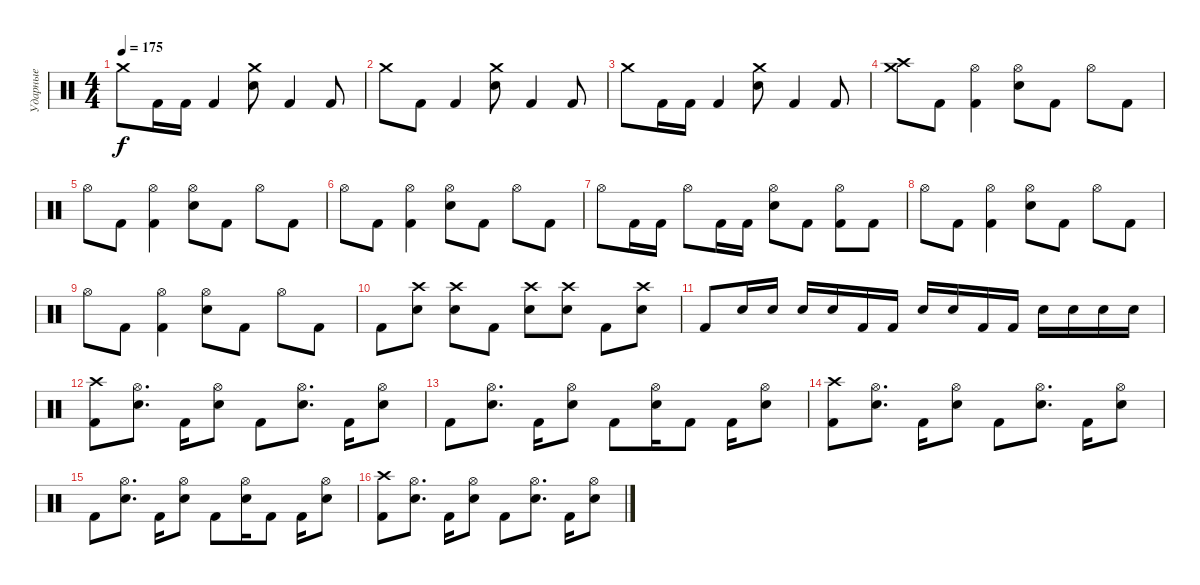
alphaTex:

\track ("Ударные" "Ударные") {instrument percussion}
\staff {score}
\articulation defaults
\ts (4 4)
\tempo 175
\clef neutral
\ks c "Crash medium (hit)".8{dy f} "Kick (hit) 2".16 "Kick (hit) 2".16 "Kick (hit) 2".4
("Crash medium (hit)" "Electric Snare (hit)").8 "Kick (hit) 2".4 "Kick (hit) 2".8 |
"Crash medium (hit)".8 "Kick (hit) 2".8 "Kick (hit) 2".4 ("Crash medium (hit)" "Electric Snare (hit)").8 "Kick (hit) 2".4 "Kick (hit) 2".8 |
"Crash medium (hit)".8 "Kick (hit) 2".16 "Kick (hit) 2".16 "Kick (hit) 2".4 ("Crash medium (hit)" "Electric Snare (hit)").8 "Kick (hit) 2".4 "Kick (hit) 2".8 |
("Crash high (hit)" "Crash medium (hit)").8 "Kick (hit) 2".8 ("Hi-Hat (open)" "Kick (hit) 2").4 ("Hi-Hat (open)" "Electric Snare (hit)").8 "Kick (hit) 2".8 "Hi-Hat (open)".8 "Kick (hit) 2".8 |
"Hi-Hat (open)".8 "Kick (hit) 2".8 ("Hi-Hat (open)" "Kick (hit) 2").4 ("Hi-Hat (open)" "Electric Snare (hit)").8 "Kick (hit) 2".8 "Hi-Hat (open)".8 "Kick (hit) 2".8 |
"Hi-Hat (open)".8 "Kick (hit) 2".8 ("Hi-Hat (open)" "Kick (hit) 2").4 ("Hi-Hat (open)" "Electric Snare (hit)").8 "Kick (hit) 2".8 "Hi-Hat (open)".8 "Kick (hit) 2".8 |
"Hi-Hat (open)".8 "Kick (hit) 2".16 "Kick (hit) 2".16 "Hi-Hat (open)".8 "Kick (hit) 2".16 "Kick (hit) 2".16 ("Hi-Hat (open)" "Electric Snare (hit)").8 "Kick (hit) 2".8 ("Hi-Hat (open)" "Kick (hit) 2").8 "Kick (hit) 2".8 |
"Hi-Hat (open)".8 "Kick (hit) 2".8 ("Hi-Hat (open)" "Kick (hit) 2").4 ("Hi-Hat (open)" "Electric Snare (hit)").8 "Kick (hit) 2".8 "Hi-Hat (open)".8 "Kick (hit) 2".8 |
"Hi-Hat (open)".8 "Kick (hit) 2".8 ("Hi-Hat (open)" "Kick (hit) 2").4 ("Hi-Hat (open)" "Electric Snare (hit)").8 "Kick (hit) 2".8 "Hi-Hat (open)".8 "Kick (hit) 2".8 |
"Kick (hit) 2".8 ("Crash high (hit)" "Electric Snare (hit)").8 ("Crash high (hit)" "Electric Snare (hit)").8 "Kick (hit) 2".8 ("Crash high (hit)" "Electric Snare (hit)").8 ("Crash high (hit)" "Electric Snare (hit)").8 "Kick (hit) 2".8 ("Crash high (hit)" "Electric Snare (hit)").8 |
"Kick (hit) 2".8 "Electric Snare (hit)".16 "Electric Snare (hit)".16 "Electric Snare (hit)".16 "Electric Snare (hit)".16 "Kick (hit) 2".16 "Kick (hit) 2".16 "Electric Snare (hit)".16 "Electric Snare (hit)".16 "Kick (hit) 2".16 "Kick (hit) 2".16 "Electric Snare (hit)".16 "Electric Snare (hit)".16 "Electric Snare (hit)".16 "Electric Snare (hit)".16 |
("Crash high (hit)" "Kick (hit) 2").8 ("Hi-Hat (open)" "Electric Snare (hit)").8{d} "Kick (hit) 2".16 ("Hi-Hat (open)" "Electric Snare (hit)").8 "Kick (hit) 2".8 ("Hi-Hat (open)" "Electric Snare (hit)").8{d} "Kick (hit) 2".16 ("Hi-Hat (open)" "Electric Snare (hit)").8 |
"Kick (hit) 2".8 ("Hi-Hat (open)" "Electric Snare (hit)").8{d} "Kick (hit) 2".16 ("Hi-Hat (open)" "Electric Snare (hit)").8 "Kick (hit) 2".8 ("Hi-Hat (open)" "Electric Snare (hit)").16 "Kick (hit) 2".8 "Kick (hit) 2".16 ("Hi-Hat (open)" "Electric Snare (hit)").8 |
("Crash high (hit)" "Kick (hit) 2").8 ("Hi-Hat (open)" "Electric Snare (hit)").8{d} "Kick (hit) 2".16 ("Hi-Hat (open)" "Electric Snare (hit)").8 "Kick (hit) 2".8 ("Hi-Hat (open)" "Electric Snare (hit)").8{d} "Kick (hit) 2".16 ("Hi-Hat (open)" "Electric Snare (hit)").8 |
"Kick (hit) 2".8 ("Hi-Hat (open)" "Electric Snare (hit)").8{d} "Kick (hit) 2".16 ("Hi-Hat (open)" "Electric Snare (hit)").8 "Kick (hit) 2".8 ("Hi-Hat (open)" "Electric Snare (hit)").16 "Kick (hit) 2".8 "Kick (hit) 2".16 ("Hi-Hat (open)" "Electric Snare (hit)").8 |
("Crash high (hit)" "Kick (hit) 2").8 ("Hi-Hat (open)" "Electric Snare (hit)").8{d} "Kick (hit) 2".16 ("Hi-Hat (open)" "Electric Snare (hit)").8 "Kick (hit) 2".8 ("Hi-Hat (open)" "Electric Snare (hit)").8{d} "Kick (hit) 2".16 ("Hi-Hat (open)" "Electric Snare (hit)").8
